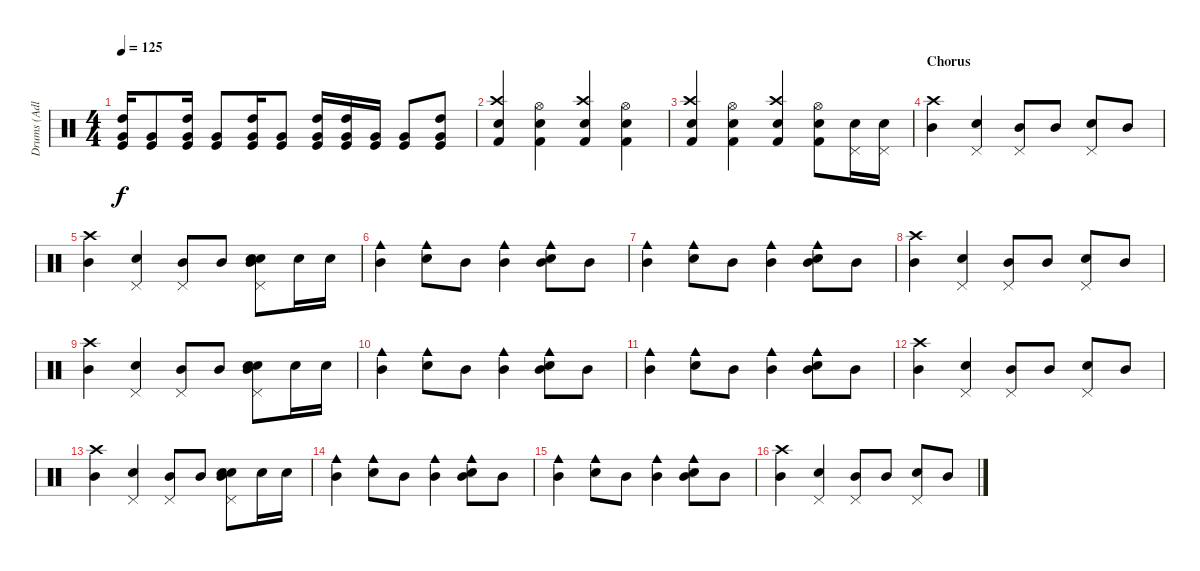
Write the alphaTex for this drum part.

\track ("Drums (Adler)" "Drums (Adl") {instrument percussion}
\staff {score}
\articulation defaults
\ts (4 4)
\tempo 125
\clef neutral
\ks c
("Kick (hit)" "Very Low Tom (hit)" "High Tom (hit)").16{dy f} ("Kick (hit)" "Very Low Tom (hit)").8 ("Kick (hit)" "Very Low Tom (hit)" "High Tom (hit)").16 ("Kick (hit)" "Very Low Tom (hit)").8 ("Kick (hit)" "Very Low Tom (hit)" "High Tom (hit)").16 ("Kick (hit)" "Very Low Tom (hit)").8 ("Kick (hit)" "Very Low Tom (hit)" "High Tom (hit)").16 ("Kick (hit)" "Very Low Tom (hit)" "High Tom (hit)").16 ("Kick (hit)" "Very Low Tom (hit)").16 ("Kick (hit)" "Very Low Tom (hit)").8 ("Kick (hit)" "Very Low Tom (hit)" "High Tom (hit)").8 |
("Kick (hit) 2" "Crash high (hit)" "Snare (hit) 2").4 ("Kick (hit) 2" "Hi-Hat (open)" "Snare (hit) 2").4 ("Kick (hit) 2" "Crash high (hit)" "Snare (hit) 2").4 ("Kick (hit) 2" "Hi-Hat (open)" "Snare (hit) 2").4 |
("Kick (hit) 2" "Crash high (hit)" "Snare (hit) 2").4 ("Kick (hit) 2" "Hi-Hat (open)" "Snare (hit) 2").4 ("Kick (hit) 2" "Crash high (hit)" "Snare (hit) 2").4 ("Kick (hit) 2" "Hi-Hat (open)" "Snare (hit) 2").8 ("Pedal Hi-Hat (hit)" "Electric Snare (hit)").16 ("Pedal Hi-Hat (hit)" "Snare (hit) 2").16 |
\section ("" "Chorus")
("Crash high (hit)" "Mid Tom (hit)").4 ("Pedal Hi-Hat (hit)" "Snare (hit) 2").4 ("Pedal Hi-Hat (hit)" "Mid Tom (hit)").8 "Mid Tom (hit)".8 ("Pedal Hi-Hat (hit)" "Snare (hit) 2").8 "Mid Tom (hit)".8 |
("Crash high (hit)" "Mid Tom (hit)").4 ("Pedal Hi-Hat (hit)" "Snare (hit) 2").4 ("Pedal Hi-Hat (hit)" "Mid Tom (hit)").8 "Mid Tom (hit)".8 ("Pedal Hi-Hat (hit)" "Snare (hit) 2" "Electric Snare (hit)" "Mid Tom (hit)").8 "Electric Snare (hit)".16 "Electric Snare (hit)".16 |
("Mid Tom (hit)" "Cowbell medium (hit)").4 ("Electric Snare (hit)" "Cowbell medium (hit)").8 "Mid Tom (hit)".8 ("Mid Tom (hit)" "Cowbell medium (hit)").4 ("Electric Snare (hit)" "Mid Tom (hit)" "Cowbell medium (hit)").8 "Mid Tom (hit)".8 |
("Mid Tom (hit)" "Cowbell medium (hit)").4 ("Electric Snare (hit)" "Cowbell medium (hit)").8 "Mid Tom (hit)".8 ("Mid Tom (hit)" "Cowbell medium (hit)").4 ("Electric Snare (hit)" "Mid Tom (hit)" "Cowbell medium (hit)").8 "Mid Tom (hit)".8 |
("Crash high (hit)" "Mid Tom (hit)").4 ("Pedal Hi-Hat (hit)" "Snare (hit) 2").4 ("Pedal Hi-Hat (hit)" "Mid Tom (hit)").8 "Mid Tom (hit)".8 ("Pedal Hi-Hat (hit)" "Snare (hit) 2").8 "Mid Tom (hit)".8 |
("Crash high (hit)" "Mid Tom (hit)").4 ("Pedal Hi-Hat (hit)" "Snare (hit) 2").4 ("Pedal Hi-Hat (hit)" "Mid Tom (hit)").8 "Mid Tom (hit)".8 ("Pedal Hi-Hat (hit)" "Snare (hit) 2" "Electric Snare (hit)" "Mid Tom (hit)").8 "Electric Snare (hit)".16 "Electric Snare (hit)".16 |
("Mid Tom (hit)" "Cowbell medium (hit)").4 ("Electric Snare (hit)" "Cowbell medium (hit)").8 "Mid Tom (hit)".8 ("Mid Tom (hit)" "Cowbell medium (hit)").4 ("Electric Snare (hit)" "Mid Tom (hit)" "Cowbell medium (hit)").8 "Mid Tom (hit)".8 |
("Mid Tom (hit)" "Cowbell medium (hit)").4 ("Electric Snare (hit)" "Cowbell medium (hit)").8 "Mid Tom (hit)".8 ("Mid Tom (hit)" "Cowbell medium (hit)").4 ("Electric Snare (hit)" "Mid Tom (hit)" "Cowbell medium (hit)").8 "Mid Tom (hit)".8 |
("Crash high (hit)" "Mid Tom (hit)").4 ("Pedal Hi-Hat (hit)" "Snare (hit) 2").4 ("Pedal Hi-Hat (hit)" "Mid Tom (hit)").8 "Mid Tom (hit)".8 ("Pedal Hi-Hat (hit)" "Snare (hit) 2").8 "Mid Tom (hit)".8 |
("Crash high (hit)" "Mid Tom (hit)").4 ("Pedal Hi-Hat (hit)" "Snare (hit) 2").4 ("Pedal Hi-Hat (hit)" "Mid Tom (hit)").8 "Mid Tom (hit)".8 ("Pedal Hi-Hat (hit)" "Snare (hit) 2" "Electric Snare (hit)" "Mid Tom (hit)").8 "Electric Snare (hit)".16 "Electric Snare (hit)".16 |
("Mid Tom (hit)" "Cowbell medium (hit)").4 ("Electric Snare (hit)" "Cowbell medium (hit)").8 "Mid Tom (hit)".8 ("Mid Tom (hit)" "Cowbell medium (hit)").4 ("Electric Snare (hit)" "Mid Tom (hit)" "Cowbell medium (hit)").8 "Mid Tom (hit)".8 |
("Mid Tom (hit)" "Cowbell medium (hit)").4 ("Electric Snare (hit)" "Cowbell medium (hit)").8 "Mid Tom (hit)".8 ("Mid Tom (hit)" "Cowbell medium (hit)").4 ("Electric Snare (hit)" "Mid Tom (hit)" "Cowbell medium (hit)").8 "Mid Tom (hit)".8 |
("Crash high (hit)" "Mid Tom (hit)").4 ("Pedal Hi-Hat (hit)" "Snare (hit) 2").4 ("Pedal Hi-Hat (hit)" "Mid Tom (hit)").8 "Mid Tom (hit)".8 ("Pedal Hi-Hat (hit)" "Snare (hit) 2").8 "Mid Tom (hit)".8
